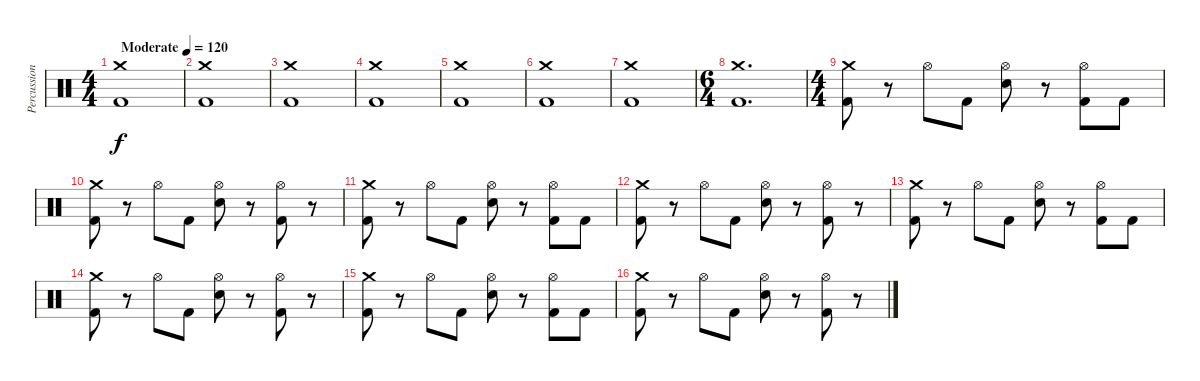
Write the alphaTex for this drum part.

\track ("Percussion" "Percussion") {instrument percussion}
\staff {score}
\articulation defaults
\ts (4 4)
\tempo (120 "Moderate")
\clef neutral
\ks c
("Crash medium (hit)" "Kick (hit) 2").1{dy f} |
("Crash medium (hit)" "Kick (hit) 2").1 |
("Crash medium (hit)" "Kick (hit) 2").1 |
("Crash medium (hit)" "Kick (hit) 2").1 |
("Crash medium (hit)" "Kick (hit) 2").1 |
("Crash medium (hit)" "Kick (hit) 2").1 |
("Crash medium (hit)" "Kick (hit) 2").1 |
\ts (6 4)
("Crash medium (hit)" "Kick (hit) 2").1{d} |
\ts (4 4)
("Crash medium (hit)" "Kick (hit) 2").8 r.8 "Hi-Hat (open)".8 "Kick (hit) 2".8 ("Hi-Hat (open)" "Electric Snare (hit)").8 r.8 ("Hi-Hat (open)" "Kick (hit) 2").8 "Kick (hit) 2".8 |
("Crash medium (hit)" "Kick (hit) 2").8 r.8 "Hi-Hat (open)".8 "Kick (hit) 2".8 ("Hi-Hat (open)" "Electric Snare (hit)").8 r.8 ("Hi-Hat (open)" "Kick (hit) 2").8 r.8 |
("Crash medium (hit)" "Kick (hit) 2").8 r.8 "Hi-Hat (open)".8 "Kick (hit) 2".8 ("Hi-Hat (open)" "Electric Snare (hit)").8 r.8 ("Hi-Hat (open)" "Kick (hit) 2").8 "Kick (hit) 2".8 |
("Crash medium (hit)" "Kick (hit) 2").8 r.8 "Hi-Hat (open)".8 "Kick (hit) 2".8 ("Hi-Hat (open)" "Electric Snare (hit)").8 r.8 ("Hi-Hat (open)" "Kick (hit) 2").8 r.8 |
("Crash medium (hit)" "Kick (hit) 2").8 r.8 "Hi-Hat (open)".8 "Kick (hit) 2".8 ("Hi-Hat (open)" "Electric Snare (hit)").8 r.8 ("Hi-Hat (open)" "Kick (hit) 2").8 "Kick (hit) 2".8 |
("Crash medium (hit)" "Kick (hit) 2").8 r.8 "Hi-Hat (open)".8 "Kick (hit) 2".8 ("Hi-Hat (open)" "Electric Snare (hit)").8 r.8 ("Hi-Hat (open)" "Kick (hit) 2").8 r.8 |
("Crash medium (hit)" "Kick (hit) 2").8 r.8 "Hi-Hat (open)".8 "Kick (hit) 2".8 ("Hi-Hat (open)" "Electric Snare (hit)").8 r.8 ("Hi-Hat (open)" "Kick (hit) 2").8 "Kick (hit) 2".8 |
("Crash medium (hit)" "Kick (hit) 2").8 r.8 "Hi-Hat (open)".8 "Kick (hit) 2".8 ("Hi-Hat (open)" "Electric Snare (hit)").8 r.8 ("Hi-Hat (open)" "Kick (hit) 2").8 r.8
